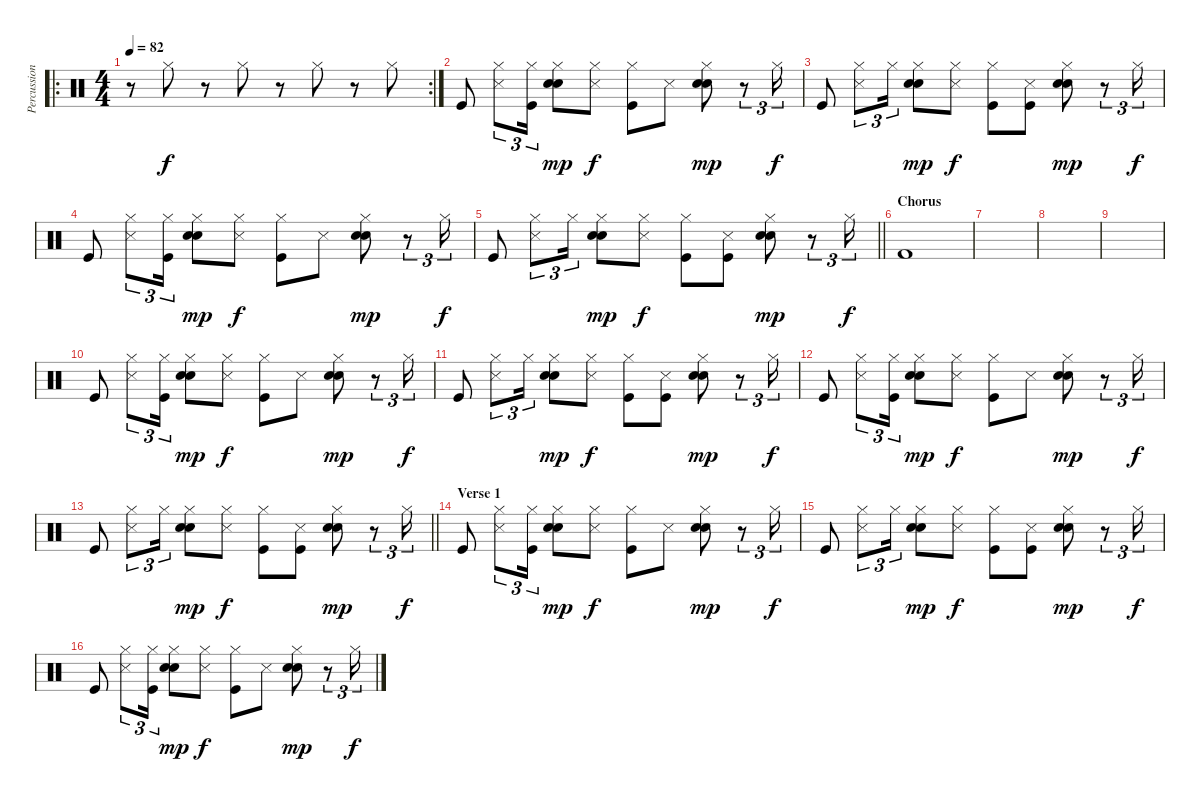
\track ("Percussion" "Percussion") {instrument percussion}
\staff {score}
\articulation defaults
\ro
\rc 2
\ts (4 4)
\tempo 82
\clef neutral
\ks c
r.8{dy f volume 4} "Hi-Hat (closed)".8{balance 0} r.8 "Hi-Hat (closed)".8{balance 16} r.8 "Hi-Hat (closed)".8{balance 0} r.8 "Hi-Hat (closed)".8{balance 16} |
"Kick (hit)".8{volume 13 balance 8} ("Hi-Hat (closed)" "Snare (side stick) 3").8{tu (3 2)} ("Hi-Hat (closed)" "Kick (hit)").16{tu (3 2)} ("Hi-Hat (closed)" "Hand Clap (hit)" "Electric Snare (hit)").8{dy mp} ("Hi-Hat (closed)" "Snare (side stick) 3").8{dy f} ("Hi-Hat (closed)" "Kick (hit)").8 "Snare (side stick) 3".8 ("Hi-Hat (closed)" "Hand Clap (hit)" "Electric Snare (hit)").8{dy mp} r.8{tu (3 2)} "Hi-Hat (closed)".16{tu (3 2) dy f} |
"Kick (hit)".8 ("Hi-Hat (closed)" "Snare (side stick) 3").8{tu (3 2)} "Hi-Hat (closed)".16{tu (3 2)} ("Hi-Hat (closed)" "Hand Clap (hit)" "Electric Snare (hit)").8{dy mp} ("Hi-Hat (closed)" "Snare (side stick) 3").8{dy f} ("Hi-Hat (closed)" "Kick (hit)").8 ("Snare (side stick) 3" "Kick (hit)").8 ("Hi-Hat (closed)" "Hand Clap (hit)" "Electric Snare (hit)").8{dy mp} r.8{tu (3 2)} "Hi-Hat (closed)".16{tu (3 2) dy f} |
"Kick (hit)".8{volume 13} ("Hi-Hat (closed)" "Snare (side stick) 3").8{tu (3 2)} ("Hi-Hat (closed)" "Kick (hit)").16{tu (3 2)} ("Hi-Hat (closed)" "Hand Clap (hit)" "Electric Snare (hit)").8{dy mp} ("Hi-Hat (closed)" "Snare (side stick) 3").8{dy f} ("Hi-Hat (closed)" "Kick (hit)").8 "Snare (side stick) 3".8 ("Hi-Hat (closed)" "Hand Clap (hit)" "Electric Snare (hit)").8{dy mp} r.8{tu (3 2)} "Hi-Hat (closed)".16{tu (3 2) dy f} |
\barLineRight lightlight "Kick (hit)".8
("Hi-Hat (closed)" "Snare (side stick) 3").8{tu (3 2)} "Hi-Hat (closed)".16{tu (3 2)} ("Hi-Hat (closed)" "Hand Clap (hit)" "Electric Snare (hit)").8{dy mp} ("Hi-Hat (closed)" "Snare (side stick) 3").8{dy f} ("Hi-Hat (closed)" "Kick (hit)").8 ("Snare (side stick) 3" "Kick (hit)").8 ("Hi-Hat (closed)" "Hand Clap (hit)" "Electric Snare (hit)").8{dy mp} r.8{tu (3 2)} "Hi-Hat (closed)".16{tu (3 2) dy f} |
\section ("" "Chorus")
"Kick (hit) 2".1 |
|
|
|
"Kick (hit)".8{volume 13} ("Hi-Hat (closed)" "Snare (side stick) 3").8{tu (3 2)} ("Hi-Hat (closed)" "Kick (hit)").16{tu (3 2)} ("Hi-Hat (closed)" "Hand Clap (hit)" "Electric Snare (hit)").8{dy mp} ("Hi-Hat (closed)" "Snare (side stick) 3").8{dy f} ("Hi-Hat (closed)" "Kick (hit)").8 "Snare (side stick) 3".8 ("Hi-Hat (closed)" "Hand Clap (hit)" "Electric Snare (hit)").8{dy mp} r.8{tu (3 2)} "Hi-Hat (closed)".16{tu (3 2) dy f} |
"Kick (hit)".8 ("Hi-Hat (closed)" "Snare (side stick) 3").8{tu (3 2)} "Hi-Hat (closed)".16{tu (3 2)} ("Hi-Hat (closed)" "Hand Clap (hit)" "Electric Snare (hit)").8{dy mp} ("Hi-Hat (closed)" "Snare (side stick) 3").8{dy f} ("Hi-Hat (closed)" "Kick (hit)").8 ("Snare (side stick) 3" "Kick (hit)").8 ("Hi-Hat (closed)" "Hand Clap (hit)" "Electric Snare (hit)").8{dy mp} r.8{tu (3 2)} "Hi-Hat (closed)".16{tu (3 2) dy f} |
"Kick (hit)".8{volume 13} ("Hi-Hat (closed)" "Snare (side stick) 3").8{tu (3 2)} ("Hi-Hat (closed)" "Kick (hit)").16{tu (3 2)} ("Hi-Hat (closed)" "Hand Clap (hit)" "Electric Snare (hit)").8{dy mp} ("Hi-Hat (closed)" "Snare (side stick) 3").8{dy f} ("Hi-Hat (closed)" "Kick (hit)").8 "Snare (side stick) 3".8 ("Hi-Hat (closed)" "Hand Clap (hit)" "Electric Snare (hit)").8{dy mp} r.8{tu (3 2)} "Hi-Hat (closed)".16{tu (3 2) dy f} |
\barLineRight lightlight "Kick (hit)".8
("Hi-Hat (closed)" "Snare (side stick) 3").8{tu (3 2)} "Hi-Hat (closed)".16{tu (3 2)} ("Hi-Hat (closed)" "Hand Clap (hit)" "Electric Snare (hit)").8{dy mp} ("Hi-Hat (closed)" "Snare (side stick) 3").8{dy f} ("Hi-Hat (closed)" "Kick (hit)").8 ("Snare (side stick) 3" "Kick (hit)").8 ("Hi-Hat (closed)" "Hand Clap (hit)" "Electric Snare (hit)").8{dy mp} r.8{tu (3 2)} "Hi-Hat (closed)".16{tu (3 2) dy f} |
\section ("" "Verse 1")
"Kick (hit)".8{volume 13} ("Hi-Hat (closed)" "Snare (side stick) 3").8{tu (3 2)} ("Hi-Hat (closed)" "Kick (hit)").16{tu (3 2)} ("Hi-Hat (closed)" "Hand Clap (hit)" "Electric Snare (hit)").8{dy mp} ("Hi-Hat (closed)" "Snare (side stick) 3").8{dy f} ("Hi-Hat (closed)" "Kick (hit)").8 "Snare (side stick) 3".8 ("Hi-Hat (closed)" "Hand Clap (hit)" "Electric Snare (hit)").8{dy mp} r.8{tu (3 2)} "Hi-Hat (closed)".16{tu (3 2) dy f} |
"Kick (hit)".8 ("Hi-Hat (closed)" "Snare (side stick) 3").8{tu (3 2)} "Hi-Hat (closed)".16{tu (3 2)} ("Hi-Hat (closed)" "Hand Clap (hit)" "Electric Snare (hit)").8{dy mp} ("Hi-Hat (closed)" "Snare (side stick) 3").8{dy f} ("Hi-Hat (closed)" "Kick (hit)").8 ("Snare (side stick) 3" "Kick (hit)").8 ("Hi-Hat (closed)" "Hand Clap (hit)" "Electric Snare (hit)").8{dy mp} r.8{tu (3 2)} "Hi-Hat (closed)".16{tu (3 2) dy f} |
"Kick (hit)".8{volume 13} ("Hi-Hat (closed)" "Snare (side stick) 3").8{tu (3 2)} ("Hi-Hat (closed)" "Kick (hit)").16{tu (3 2)} ("Hi-Hat (closed)" "Hand Clap (hit)" "Electric Snare (hit)").8{dy mp} ("Hi-Hat (closed)" "Snare (side stick) 3").8{dy f} ("Hi-Hat (closed)" "Kick (hit)").8 "Snare (side stick) 3".8 ("Hi-Hat (closed)" "Hand Clap (hit)" "Electric Snare (hit)").8{dy mp} r.8{tu (3 2)} "Hi-Hat (closed)".16{tu (3 2) dy f}
